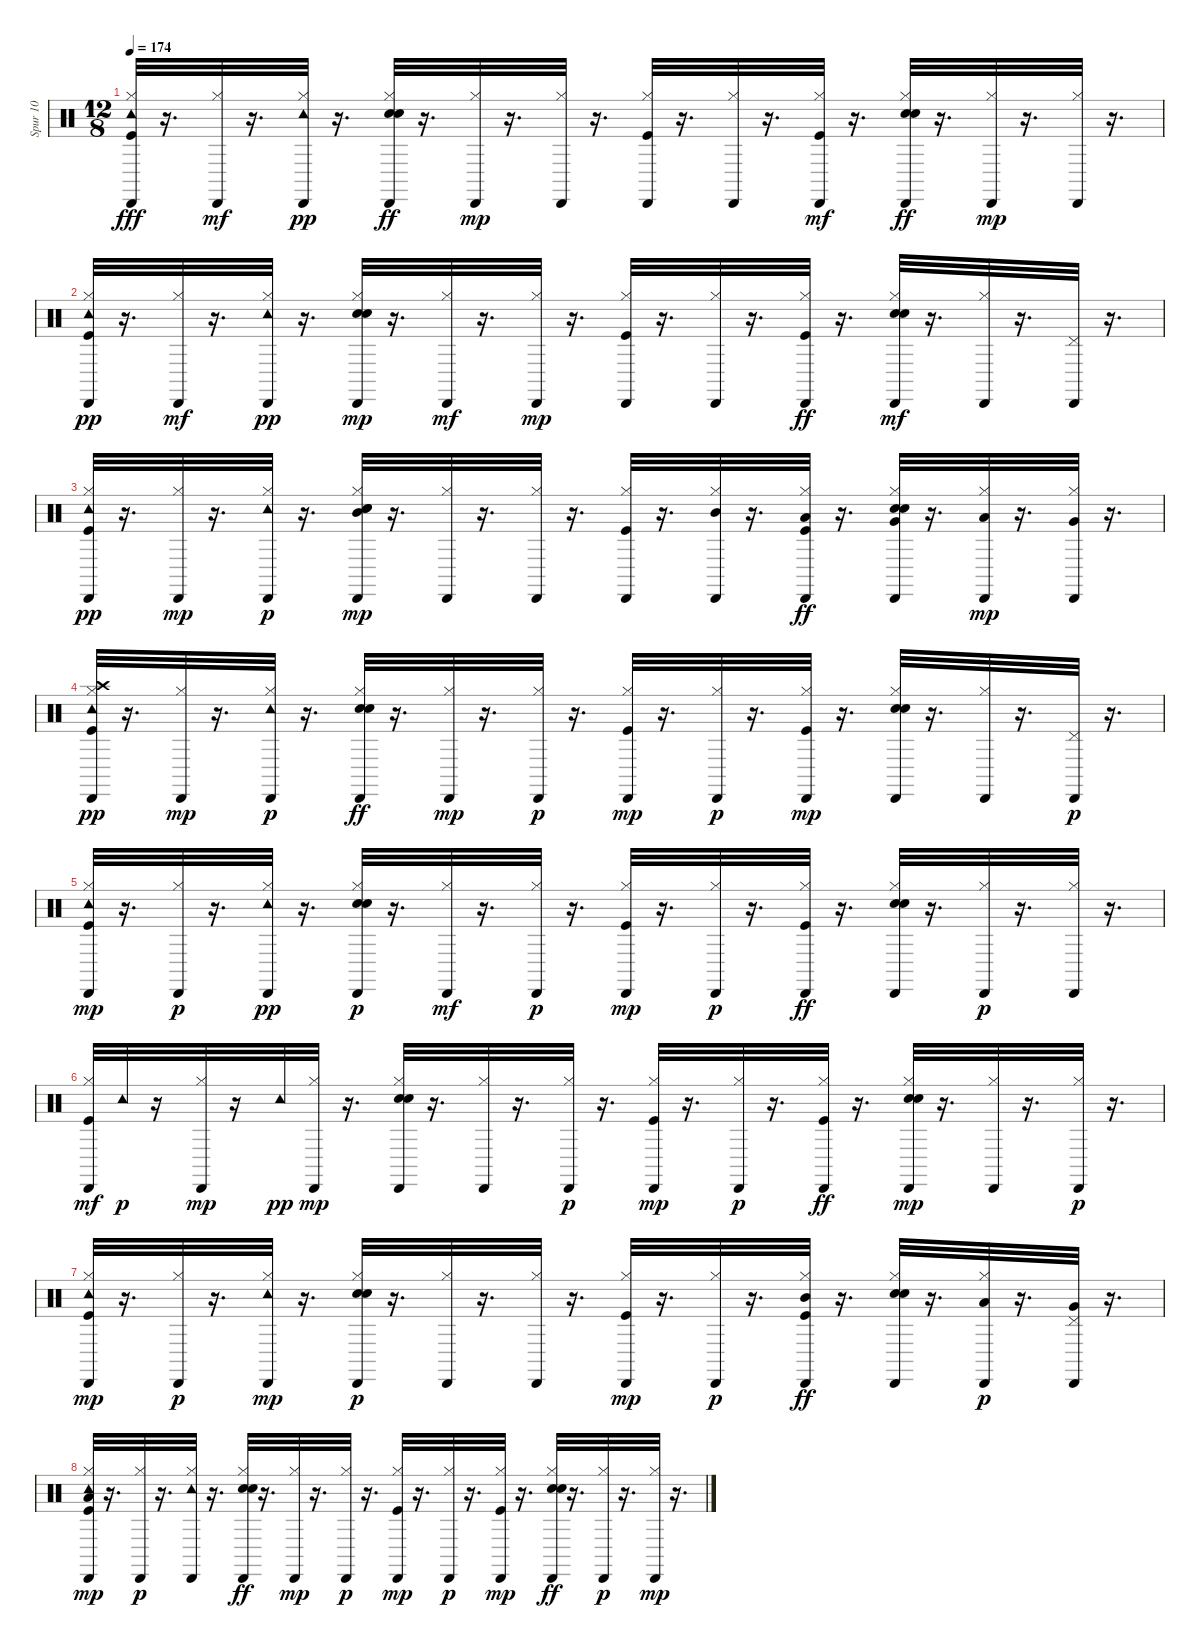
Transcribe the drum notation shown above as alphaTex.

\track ("Spur 10" "Spur 10") {instrument percussion}
\staff {score}
\articulation defaults
\ts (12 8)
\tempo 174
\clef neutral
\ks c
("Tambourine (hit)" "Cabasa (hit)" "Hi-Hat (closed)" "Kick (hit)").32{dy fff} r.16{d} ("Cabasa (hit)" "Hi-Hat (closed)").32{dy mf} r.16{d} ("Hi-Hat (closed)" "Cabasa (hit)" "Tambourine (hit)").32{dy pp} r.16{d} ("Hi-Hat (closed)" "Cabasa (hit)" "Electric Snare (hit)" "Hand Clap (hit)").32{dy ff} r.16{d} ("Hi-Hat (closed)" "Cabasa (hit)").32{dy mp} r.16{d} ("Hi-Hat (closed)" "Cabasa (hit)").32 r.16{d} ("Kick (hit)" "Cabasa (hit)" "Hi-Hat (closed)").32 r.16{d} ("Hi-Hat (closed)" "Cabasa (hit)").32 r.16{d} ("Cabasa (hit)" "Hi-Hat (closed)" "Kick (hit)").32{dy mf} r.16{d} ("Cabasa (hit)" "Hi-Hat (closed)" "Electric Snare (hit)" "Hand Clap (hit)").32{dy ff} r.16{d} ("Hi-Hat (closed)" "Cabasa (hit)").32{dy mp} r.16{d} ("Hi-Hat (closed)" "Cabasa (hit)").32 r.16{d} |
("Hi-Hat (closed)" "Kick (hit)" "Cabasa (hit)" "Tambourine (hit)").32{dy pp} r.16{d} ("Cabasa (hit)" "Hi-Hat (closed)").32{dy mf} r.16{d} ("Hi-Hat (closed)" "Cabasa (hit)" "Tambourine (hit)").32{dy pp} r.16{d} ("Hi-Hat (closed)" "Hand Clap (hit)" "Electric Snare (hit)" "Cabasa (hit)").32{dy mp} r.16{d} ("Cabasa (hit)" "Hi-Hat (closed)").32{dy mf} r.16{d} ("Hi-Hat (closed)" "Cabasa (hit)").32{dy mp} r.16{d} ("Cabasa (hit)" "Kick (hit)" "Hi-Hat (closed)").32 r.16{d} ("Cabasa (hit)" "Hi-Hat (closed)").32 r.16{d} ("Cabasa (hit)" "Hi-Hat (closed)" "Kick (hit)").32{dy ff} r.16{d} ("Hand Clap (hit)" "Cabasa (hit)" "Electric Snare (hit)" "Hi-Hat (closed)").32{dy mf} r.16{d} ("Cabasa (hit)" "Hi-Hat (closed)").32 r.16{d} ("Cabasa (hit)" "Pedal Hi-Hat (hit)").32 r.16{d} |
("Kick (hit)" "Cabasa (hit)" "Hi-Hat (closed)" "Tambourine (hit)").32{dy pp} r.16{d} ("Hi-Hat (closed)" "Cabasa (hit)").32{dy mp} r.16{d} ("Hi-Hat (closed)" "Cabasa (hit)" "Tambourine (hit)").32{dy p} r.16{d} ("Mid Tom (hit)" "Hand Clap (hit)" "Hi-Hat (closed)" "Electric Snare (hit)" "Cabasa (hit)").32{dy mp} r.16{d} ("Hi-Hat (closed)" "Cabasa (hit)").32 r.16{d} ("Hi-Hat (closed)" "Cabasa (hit)").32 r.16{d} ("Hi-Hat (closed)" "Kick (hit)" "Cabasa (hit)").32 r.16{d} ("Mid Tom (hit)" "Hi-Hat (closed)" "Cabasa (hit)").32 r.16{d} ("Hi-Hat (closed)" "Low Tom (hit)" "Cabasa (hit)" "Kick (hit)").32{dy ff} r.16{d} ("Hand Clap (hit)" "Hi-Hat (closed)" "Cabasa (hit)" "Electric Snare (hit)" "Very Low Tom (hit)").32 r.16{d} ("Hi-Hat (closed)" "Cabasa (hit)" "Low Floor Tom (hit)").32{dy mp} r.16{d} ("Hi-Hat (closed)" "Very Low Tom (hit)" "Cabasa (hit)").32 r.16{d} |
("Hi-Hat (closed)" "Kick (hit)" "Cabasa (hit)" "Crash high (hit)" "Tambourine (hit)").32{dy pp} r.16{d} ("Hi-Hat (closed)" "Cabasa (hit)").32{dy mp} r.16{d} ("Hi-Hat (closed)" "Cabasa (hit)" "Tambourine (hit)").32{dy p} r.16{d} ("Hi-Hat (closed)" "Hand Clap (hit)" "Cabasa (hit)" "Electric Snare (hit)").32{dy ff} r.16{d} ("Hi-Hat (closed)" "Cabasa (hit)").32{dy mp} r.16{d} ("Hi-Hat (closed)" "Cabasa (hit)").32{dy p} r.16{d} ("Hi-Hat (closed)" "Kick (hit)" "Cabasa (hit)").32{dy mp} r.16{d} ("Hi-Hat (closed)" "Cabasa (hit)").32{dy p} r.16{d} ("Hi-Hat (closed)" "Kick (hit)" "Cabasa (hit)").32{dy mp} r.16{d} ("Hi-Hat (closed)" "Hand Clap (hit)" "Electric Snare (hit)" "Cabasa (hit)").32 r.16{d} ("Hi-Hat (closed)" "Cabasa (hit)").32 r.16{d} ("Pedal Hi-Hat (hit)" "Cabasa (hit)").32{dy p} r.16{d} |
("Tambourine (hit)" "Hi-Hat (closed)" "Kick (hit)" "Cabasa (hit)").32{dy mp} r.16{d} ("Hi-Hat (closed)" "Cabasa (hit)").32{dy p} r.16{d} ("Hi-Hat (closed)" "Cabasa (hit)" "Tambourine (hit)").32{dy pp} r.16{d} ("Electric Snare (hit)" "Hi-Hat (closed)" "Hand Clap (hit)" "Cabasa (hit)").32{dy p} r.16{d} ("Cabasa (hit)" "Hi-Hat (closed)").32{dy mf} r.16{d} ("Hi-Hat (closed)" "Cabasa (hit)").32{dy p} r.16{d} ("Kick (hit)" "Cabasa (hit)" "Hi-Hat (closed)").32{dy mp} r.16{d} ("Hi-Hat (closed)" "Cabasa (hit)").32{dy p} r.16{d} ("Hi-Hat (closed)" "Cabasa (hit)" "Kick (hit)").32{dy ff} r.16{d} ("Hi-Hat (closed)" "Cabasa (hit)" "Electric Snare (hit)" "Hand Clap (hit)").32 r.16{d} ("Hi-Hat (closed)" "Cabasa (hit)").32{dy p} r.16{d} ("Hi-Hat (closed)" "Cabasa (hit)").32 r.16{d} |
("Kick (hit)" "Cabasa (hit)" "Hi-Hat (closed)").32{dy mf} "Tambourine (hit)".32{dy p} r.16 ("Cabasa (hit)" "Hi-Hat (closed)").32{dy mp} r.16 "Tambourine (hit)".32{dy pp} ("Cabasa (hit)" "Hi-Hat (closed)").32{dy mp} r.16{d} ("Electric Snare (hit)" "Hand Clap (hit)" "Cabasa (hit)" "Hi-Hat (closed)").32 r.16{d} ("Cabasa (hit)" "Hi-Hat (closed)").32 r.16{d} ("Cabasa (hit)" "Hi-Hat (closed)").32{dy p} r.16{d} ("Hi-Hat (closed)" "Kick (hit)" "Cabasa (hit)").32{dy mp} r.16{d} ("Hi-Hat (closed)" "Cabasa (hit)").32{dy p} r.16{d} ("Hi-Hat (closed)" "Cabasa (hit)" "Kick (hit)").32{dy ff} r.16{d} ("Hand Clap (hit)" "Hi-Hat (closed)" "Electric Snare (hit)" "Cabasa (hit)").32{dy mp} r.16{d} ("Hi-Hat (closed)" "Cabasa (hit)").32 r.16{d} ("Hi-Hat (closed)" "Cabasa (hit)").32{dy p} r.16{d} |
("Tambourine (hit)" "Hi-Hat (closed)" "Kick (hit)" "Cabasa (hit)").32{dy mp} r.16{d} ("Hi-Hat (closed)" "Cabasa (hit)").32{dy p} r.16{d} ("Tambourine (hit)" "Hi-Hat (closed)" "Cabasa (hit)").32{dy mp} r.16{d} ("Hi-Hat (closed)" "Electric Snare (hit)" "Hand Clap (hit)" "Cabasa (hit)").32{dy p} r.16{d} ("Hi-Hat (closed)" "Cabasa (hit)").32 r.16{d} ("Hi-Hat (closed)" "Cabasa (hit)").32 r.16{d} ("Hi-Hat (closed)" "Kick (hit)" "Cabasa (hit)").32{dy mp} r.16{d} ("Hi-Hat (closed)" "Cabasa (hit)").32{dy p} r.16{d} ("Mid Tom (hit)" "Hi-Hat (closed)" "Cabasa (hit)" "Kick (hit)").32{dy ff} r.16{d} ("Hi-Hat (closed)" "Hand Clap (hit)" "Cabasa (hit)" "Electric Snare (hit)").32 r.16{d} ("Hi-Hat (closed)" "Cabasa (hit)" "Low Tom (hit)").32{dy p} r.16{d} ("Pedal Hi-Hat (hit)" "Very Low Tom (hit)" "Cabasa (hit)").32 r.16{d} |
("Tambourine (hit)" "Hi-Hat (closed)" "Kick (hit)" "Low Floor Tom (hit)" "Cabasa (hit)").32{dy mp} r.16{d} ("Hi-Hat (closed)" "Cabasa (hit)").32{dy p} r.16{d} ("Tambourine (hit)" "Hi-Hat (closed)" "Cabasa (hit)").32 r.16{d} ("Hi-Hat (closed)" "Hand Clap (hit)" "Cabasa (hit)" "Electric Snare (hit)").32{dy ff} r.16{d} ("Hi-Hat (closed)" "Cabasa (hit)").32{dy mp} r.16{d} ("Hi-Hat (closed)" "Cabasa (hit)").32{dy p} r.16{d} ("Hi-Hat (closed)" "Kick (hit)" "Cabasa (hit)").32{dy mp} r.16{d} ("Hi-Hat (closed)" "Cabasa (hit)").32{dy p} r.16{d} ("Hi-Hat (closed)" "Kick (hit)" "Cabasa (hit)").32{dy mp} r.16{d} ("Hi-Hat (closed)" "Hand Clap (hit)" "Cabasa (hit)" "Electric Snare (hit)").32{dy ff} r.16{d} ("Hi-Hat (closed)" "Cabasa (hit)").32{dy p} r.16{d} ("Hi-Hat (closed)" "Cabasa (hit)").32{dy mp} r.16{d}
